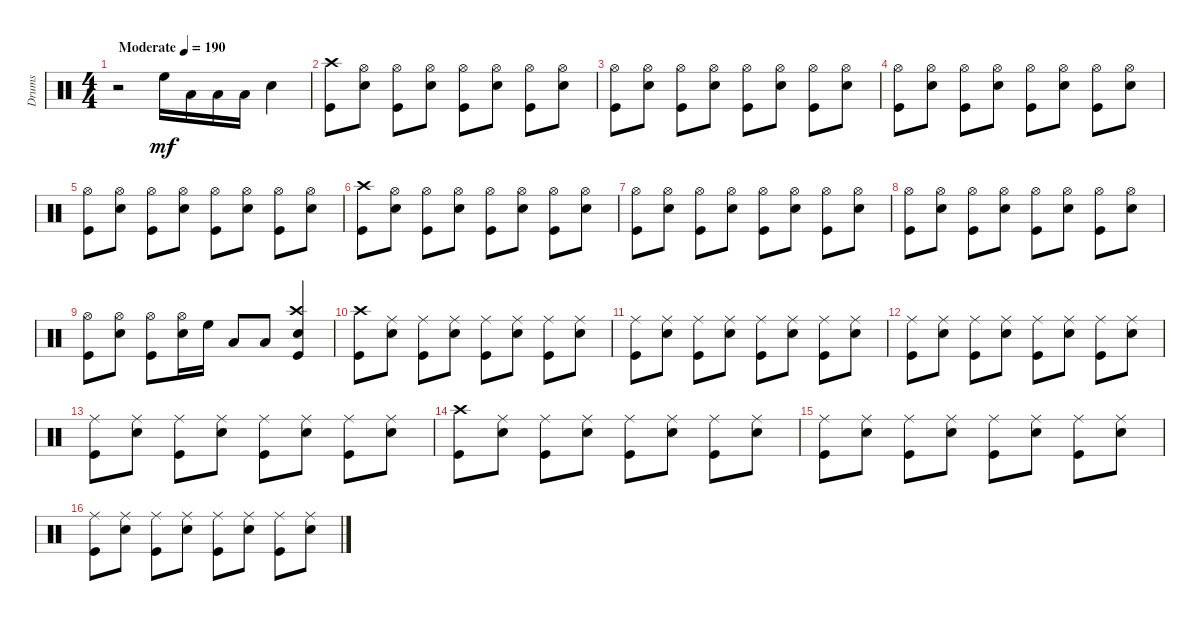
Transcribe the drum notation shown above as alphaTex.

\track ("Drums" "Drums") {instrument percussion}
\staff {score}
\articulation defaults
\ts (4 4)
\tempo (190 "Moderate")
\clef neutral
\ks c
r.2{dy mf} "High Floor Tom (hit)".16 "Low Tom (hit)".16 "Low Floor Tom (hit)".16 "Low Floor Tom (hit)".16 "Snare (hit) 2".4 |
("Crash high (hit)" "Kick (hit)").8 ("Snare (hit) 2" "Hi-Hat (open)").8 ("Hi-Hat (open)" "Kick (hit)").8 ("Snare (hit) 2" "Hi-Hat (open)").8 ("Hi-Hat (open)" "Kick (hit)").8 ("Snare (hit) 2" "Hi-Hat (open)").8 ("Hi-Hat (open)" "Kick (hit)").8 ("Snare (hit) 2" "Hi-Hat (open)").8 |
("Kick (hit)" "Hi-Hat (open)").8 ("Snare (hit) 2" "Hi-Hat (open)").8 ("Kick (hit)" "Hi-Hat (open)").8 ("Snare (hit) 2" "Hi-Hat (open)").8 ("Kick (hit)" "Hi-Hat (open)").8 ("Snare (hit) 2" "Hi-Hat (open)").8 ("Kick (hit)" "Hi-Hat (open)").8 ("Snare (hit) 2" "Hi-Hat (open)").8 |
("Hi-Hat (open)" "Kick (hit)").8 ("Snare (hit) 2" "Hi-Hat (open)").8 ("Hi-Hat (open)" "Kick (hit)").8 ("Snare (hit) 2" "Hi-Hat (open)").8 ("Hi-Hat (open)" "Kick (hit)").8 ("Snare (hit) 2" "Hi-Hat (open)").8 ("Hi-Hat (open)" "Kick (hit)").8 ("Snare (hit) 2" "Hi-Hat (open)").8 |
("Hi-Hat (open)" "Kick (hit)").8 ("Snare (hit) 2" "Hi-Hat (open)").8 ("Hi-Hat (open)" "Kick (hit)").8 ("Snare (hit) 2" "Hi-Hat (open)").8 ("Hi-Hat (open)" "Kick (hit)").8 ("Snare (hit) 2" "Hi-Hat (open)").8 ("Hi-Hat (open)" "Kick (hit)").8 ("Snare (hit) 2" "Hi-Hat (open)").8 |
("Kick (hit)" "Crash high (hit)").8 ("Snare (hit) 2" "Hi-Hat (open)").8 ("Kick (hit)" "Hi-Hat (open)").8 ("Snare (hit) 2" "Hi-Hat (open)").8 ("Kick (hit)" "Hi-Hat (open)").8 ("Snare (hit) 2" "Hi-Hat (open)").8 ("Kick (hit)" "Hi-Hat (open)").8 ("Snare (hit) 2" "Hi-Hat (open)").8 |
("Hi-Hat (open)" "Kick (hit)").8 ("Snare (hit) 2" "Hi-Hat (open)").8 ("Hi-Hat (open)" "Kick (hit)").8 ("Snare (hit) 2" "Hi-Hat (open)").8 ("Hi-Hat (open)" "Kick (hit)").8 ("Snare (hit) 2" "Hi-Hat (open)").8 ("Hi-Hat (open)" "Kick (hit)").8 ("Snare (hit) 2" "Hi-Hat (open)").8 |
("Kick (hit)" "Hi-Hat (open)").8 ("Snare (hit) 2" "Hi-Hat (open)").8 ("Kick (hit)" "Hi-Hat (open)").8 ("Snare (hit) 2" "Hi-Hat (open)").8 ("Kick (hit)" "Hi-Hat (open)").8 ("Snare (hit) 2" "Hi-Hat (open)").8 ("Kick (hit)" "Hi-Hat (open)").8 ("Snare (hit) 2" "Hi-Hat (open)").8 |
("Kick (hit)" "Hi-Hat (open)").8 ("Snare (hit) 2" "Hi-Hat (open)").8 ("Kick (hit)" "Hi-Hat (open)").8 ("Snare (hit) 2" "Hi-Hat (open)").16 "High Floor Tom (hit)".16 "Low Tom (hit)".8 "Low Floor Tom (hit)".8 ("Kick (hit)" "Snare (hit) 2" "Crash high (hit)").4 |
("Kick (hit)" "Crash high (hit)").8 ("Snare (hit) 2" "Ride (middle)").8 ("Kick (hit)" "Ride (middle)").8 ("Snare (hit) 2" "Ride (middle)").8 ("Kick (hit)" "Ride (middle)").8 ("Snare (hit) 2" "Ride (middle)").8 ("Kick (hit)" "Ride (middle)").8 ("Snare (hit) 2" "Ride (middle)").8 |
("Kick (hit)" "Ride (middle)").8 ("Snare (hit) 2" "Ride (middle)").8 ("Kick (hit)" "Ride (middle)").8 ("Snare (hit) 2" "Ride (middle)").8 ("Kick (hit)" "Ride (middle)").8 ("Snare (hit) 2" "Ride (middle)").8 ("Kick (hit)" "Ride (middle)").8 ("Snare (hit) 2" "Ride (middle)").8 |
("Ride (middle)" "Kick (hit)").8 ("Snare (hit) 2" "Ride (middle)").8 ("Ride (middle)" "Kick (hit)").8 ("Snare (hit) 2" "Ride (middle)").8 ("Ride (middle)" "Kick (hit)").8 ("Snare (hit) 2" "Ride (middle)").8 ("Ride (middle)" "Kick (hit)").8 ("Snare (hit) 2" "Ride (middle)").8 |
("Ride (middle)" "Kick (hit)").8 ("Snare (hit) 2" "Ride (middle)").8 ("Ride (middle)" "Kick (hit)").8 ("Snare (hit) 2" "Ride (middle)").8 ("Ride (middle)" "Kick (hit)").8 ("Snare (hit) 2" "Ride (middle)").8 ("Ride (middle)" "Kick (hit)").8 ("Snare (hit) 2" "Ride (middle)").8 |
("Crash high (hit)" "Kick (hit)").8 ("Snare (hit) 2" "Ride (middle)").8 ("Ride (middle)" "Kick (hit)").8 ("Snare (hit) 2" "Ride (middle)").8 ("Ride (middle)" "Kick (hit)").8 ("Snare (hit) 2" "Ride (middle)").8 ("Ride (middle)" "Kick (hit)").8 ("Snare (hit) 2" "Ride (middle)").8 |
("Ride (middle)" "Kick (hit)").8 ("Snare (hit) 2" "Ride (middle)").8 ("Ride (middle)" "Kick (hit)").8 ("Snare (hit) 2" "Ride (middle)").8 ("Ride (middle)" "Kick (hit)").8 ("Snare (hit) 2" "Ride (middle)").8 ("Ride (middle)" "Kick (hit)").8 ("Snare (hit) 2" "Ride (middle)").8 |
("Kick (hit)" "Ride (middle)").8 ("Snare (hit) 2" "Ride (middle)").8 ("Kick (hit)" "Ride (middle)").8 ("Snare (hit) 2" "Ride (middle)").8 ("Kick (hit)" "Ride (middle)").8 ("Snare (hit) 2" "Ride (middle)").8 ("Kick (hit)" "Ride (middle)").8 ("Snare (hit) 2" "Ride (middle)").8
